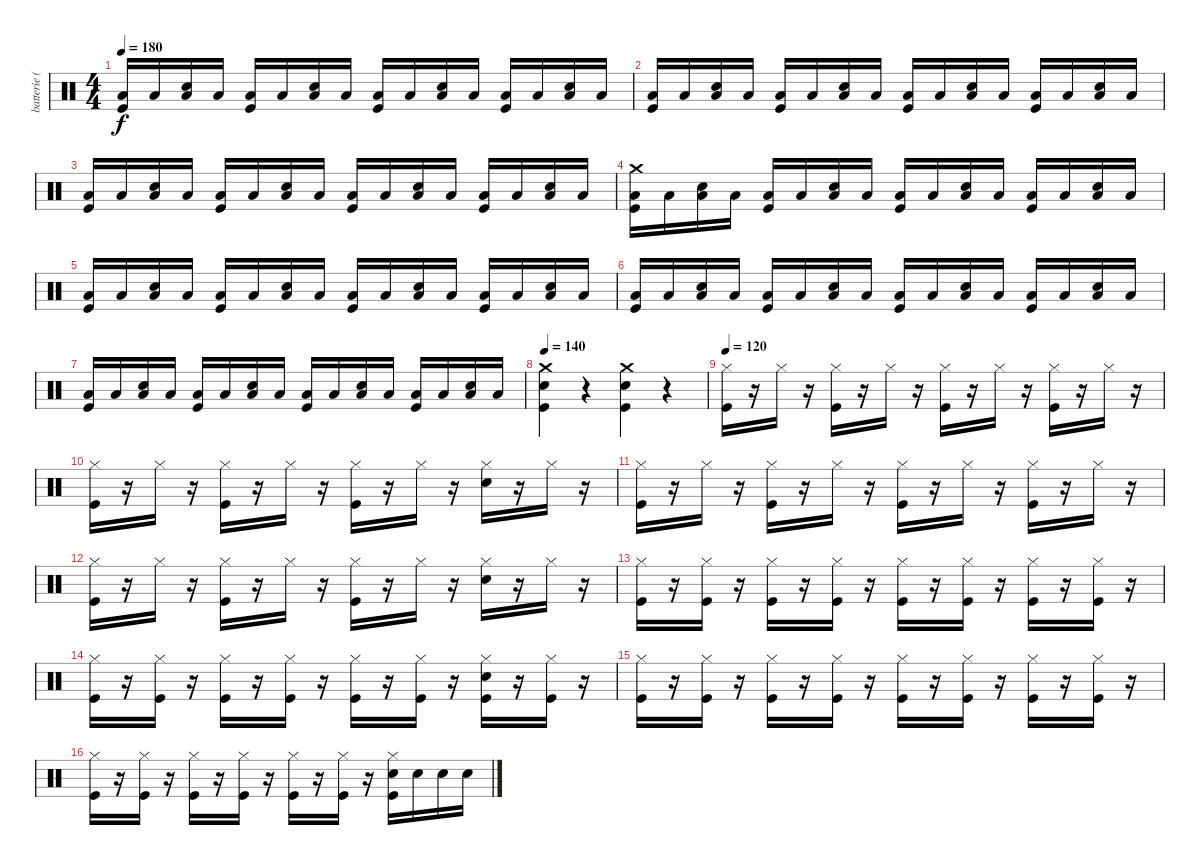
\track ("batterie ( Jeff Nelson ) " "batterie (") {instrument percussion}
\staff {score}
\articulation defaults
\ts (4 4)
\tempo 180
\clef neutral
\ks c
("Low Floor Tom (hit)" "Kick (hit)").16{dy f} "Low Floor Tom (hit)".16 ("Low Floor Tom (hit)" "Snare (hit) 2").16 "Low Floor Tom (hit)".16 ("Low Floor Tom (hit)" "Kick (hit)").16 "Low Floor Tom (hit)".16 ("Low Floor Tom (hit)" "Snare (hit) 2").16 "Low Floor Tom (hit)".16 ("Low Floor Tom (hit)" "Kick (hit)").16 "Low Floor Tom (hit)".16 ("Low Floor Tom (hit)" "Snare (hit) 2").16 "Low Floor Tom (hit)".16 ("Low Floor Tom (hit)" "Kick (hit)").16 "Low Floor Tom (hit)".16 ("Low Floor Tom (hit)" "Snare (hit) 2").16 "Low Floor Tom (hit)".16 |
("Low Floor Tom (hit)" "Kick (hit)").16 "Low Floor Tom (hit)".16 ("Low Floor Tom (hit)" "Snare (hit) 2").16 "Low Floor Tom (hit)".16 ("Low Floor Tom (hit)" "Kick (hit)").16 "Low Floor Tom (hit)".16 ("Low Floor Tom (hit)" "Snare (hit) 2").16 "Low Floor Tom (hit)".16 ("Low Floor Tom (hit)" "Kick (hit)").16 "Low Floor Tom (hit)".16 ("Low Floor Tom (hit)" "Snare (hit) 2").16 "Low Floor Tom (hit)".16 ("Low Floor Tom (hit)" "Kick (hit)").16 "Low Floor Tom (hit)".16 ("Low Floor Tom (hit)" "Snare (hit) 2").16 "Low Floor Tom (hit)".16 |
("Low Floor Tom (hit)" "Kick (hit)").16 "Low Floor Tom (hit)".16 ("Low Floor Tom (hit)" "Snare (hit) 2").16 "Low Floor Tom (hit)".16 ("Low Floor Tom (hit)" "Kick (hit)").16 "Low Floor Tom (hit)".16 ("Low Floor Tom (hit)" "Snare (hit) 2").16 "Low Floor Tom (hit)".16 ("Low Floor Tom (hit)" "Kick (hit)").16 "Low Floor Tom (hit)".16 ("Low Floor Tom (hit)" "Snare (hit) 2").16 "Low Floor Tom (hit)".16 ("Low Floor Tom (hit)" "Kick (hit)").16 "Low Floor Tom (hit)".16 ("Low Floor Tom (hit)" "Snare (hit) 2").16 "Low Floor Tom (hit)".16 |
("Crash medium (hit)" "Low Floor Tom (hit)" "Kick (hit)").16 "Low Floor Tom (hit)".16 ("Low Floor Tom (hit)" "Snare (hit) 2").16 "Low Floor Tom (hit)".16 ("Low Floor Tom (hit)" "Kick (hit)").16 "Low Floor Tom (hit)".16 ("Low Floor Tom (hit)" "Snare (hit) 2").16 "Low Floor Tom (hit)".16 ("Low Floor Tom (hit)" "Kick (hit)").16 "Low Floor Tom (hit)".16 ("Low Floor Tom (hit)" "Snare (hit) 2").16 "Low Floor Tom (hit)".16 ("Low Floor Tom (hit)" "Kick (hit)").16 "Low Floor Tom (hit)".16 ("Low Floor Tom (hit)" "Snare (hit) 2").16 "Low Floor Tom (hit)".16 |
("Low Floor Tom (hit)" "Kick (hit)").16 "Low Floor Tom (hit)".16 ("Low Floor Tom (hit)" "Snare (hit) 2").16 "Low Floor Tom (hit)".16 ("Low Floor Tom (hit)" "Kick (hit)").16 "Low Floor Tom (hit)".16 ("Low Floor Tom (hit)" "Snare (hit) 2").16 "Low Floor Tom (hit)".16 ("Low Floor Tom (hit)" "Kick (hit)").16 "Low Floor Tom (hit)".16 ("Low Floor Tom (hit)" "Snare (hit) 2").16 "Low Floor Tom (hit)".16 ("Low Floor Tom (hit)" "Kick (hit)").16 "Low Floor Tom (hit)".16 ("Low Floor Tom (hit)" "Snare (hit) 2").16 "Low Floor Tom (hit)".16 |
("Low Floor Tom (hit)" "Kick (hit)").16 "Low Floor Tom (hit)".16 ("Low Floor Tom (hit)" "Snare (hit) 2").16 "Low Floor Tom (hit)".16 ("Low Floor Tom (hit)" "Kick (hit)").16 "Low Floor Tom (hit)".16 ("Low Floor Tom (hit)" "Snare (hit) 2").16 "Low Floor Tom (hit)".16 ("Low Floor Tom (hit)" "Kick (hit)").16 "Low Floor Tom (hit)".16 ("Low Floor Tom (hit)" "Snare (hit) 2").16 "Low Floor Tom (hit)".16 ("Low Floor Tom (hit)" "Kick (hit)").16 "Low Floor Tom (hit)".16 ("Low Floor Tom (hit)" "Snare (hit) 2").16 "Low Floor Tom (hit)".16 |
("Low Floor Tom (hit)" "Kick (hit)").16 "Low Floor Tom (hit)".16 ("Low Floor Tom (hit)" "Snare (hit) 2").16 "Low Floor Tom (hit)".16 ("Low Floor Tom (hit)" "Kick (hit)").16 "Low Floor Tom (hit)".16 ("Low Floor Tom (hit)" "Snare (hit) 2").16 "Low Floor Tom (hit)".16 ("Low Floor Tom (hit)" "Kick (hit)").16 "Low Floor Tom (hit)".16 ("Low Floor Tom (hit)" "Snare (hit) 2").16 "Low Floor Tom (hit)".16 ("Low Floor Tom (hit)" "Kick (hit)").16 "Low Floor Tom (hit)".16 ("Low Floor Tom (hit)" "Snare (hit) 2").16 "Low Floor Tom (hit)".16 |
\tempo 140
("Crash medium (hit)" "Snare (hit) 2" "Kick (hit)").4 r.4 ("Crash medium (hit)" "Snare (hit) 2" "Kick (hit)").4 r.4 |
\tempo 120
("Hi-Hat (closed)" "Kick (hit)").16 r.16 "Hi-Hat (closed)".16 r.16 ("Hi-Hat (closed)" "Kick (hit)").16 r.16 "Hi-Hat (closed)".16 r.16 ("Hi-Hat (closed)" "Kick (hit)").16 r.16 "Hi-Hat (closed)".16 r.16 ("Hi-Hat (closed)" "Kick (hit)").16 r.16 "Hi-Hat (closed)".16 r.16 |
("Hi-Hat (closed)" "Kick (hit)").16 r.16 "Hi-Hat (closed)".16 r.16 ("Hi-Hat (closed)" "Kick (hit)").16 r.16 "Hi-Hat (closed)".16 r.16 ("Hi-Hat (closed)" "Kick (hit)").16 r.16 "Hi-Hat (closed)".16 r.16 ("Hi-Hat (closed)" "Snare (hit) 2").16 r.16 "Hi-Hat (closed)".16 r.16 |
("Hi-Hat (closed)" "Kick (hit)").16 r.16 "Hi-Hat (closed)".16 r.16 ("Hi-Hat (closed)" "Kick (hit)").16 r.16 "Hi-Hat (closed)".16 r.16 ("Hi-Hat (closed)" "Kick (hit)").16 r.16 "Hi-Hat (closed)".16 r.16 ("Hi-Hat (closed)" "Kick (hit)").16 r.16 "Hi-Hat (closed)".16 r.16 |
("Hi-Hat (closed)" "Kick (hit)").16 r.16 "Hi-Hat (closed)".16 r.16 ("Hi-Hat (closed)" "Kick (hit)").16 r.16 "Hi-Hat (closed)".16 r.16 ("Hi-Hat (closed)" "Kick (hit)").16 r.16 "Hi-Hat (closed)".16 r.16 ("Hi-Hat (closed)" "Snare (hit) 2").16 r.16 "Hi-Hat (closed)".16 r.16 |
("Hi-Hat (closed)" "Kick (hit)").16 r.16 ("Hi-Hat (closed)" "Kick (hit)").16 r.16 ("Hi-Hat (closed)" "Kick (hit)").16 r.16 ("Hi-Hat (closed)" "Kick (hit)").16 r.16 ("Hi-Hat (closed)" "Kick (hit)").16 r.16 ("Hi-Hat (closed)" "Kick (hit)").16 r.16 ("Hi-Hat (closed)" "Kick (hit)").16 r.16 ("Hi-Hat (closed)" "Kick (hit)").16 r.16 |
("Hi-Hat (closed)" "Kick (hit)").16 r.16 ("Hi-Hat (closed)" "Kick (hit)").16 r.16 ("Hi-Hat (closed)" "Kick (hit)").16 r.16 ("Hi-Hat (closed)" "Kick (hit)").16 r.16 ("Hi-Hat (closed)" "Kick (hit)").16 r.16 ("Hi-Hat (closed)" "Kick (hit)").16 r.16 ("Hi-Hat (closed)" "Snare (hit) 2" "Kick (hit)").16 r.16 ("Hi-Hat (closed)" "Kick (hit)").16 r.16 |
("Hi-Hat (closed)" "Kick (hit)").16 r.16 ("Hi-Hat (closed)" "Kick (hit)").16 r.16 ("Hi-Hat (closed)" "Kick (hit)").16 r.16 ("Hi-Hat (closed)" "Kick (hit)").16 r.16 ("Hi-Hat (closed)" "Kick (hit)").16 r.16 ("Hi-Hat (closed)" "Kick (hit)").16 r.16 ("Hi-Hat (closed)" "Kick (hit)").16 r.16 ("Hi-Hat (closed)" "Kick (hit)").16 r.16 |
("Hi-Hat (closed)" "Kick (hit)").16 r.16 ("Hi-Hat (closed)" "Kick (hit)").16 r.16 ("Hi-Hat (closed)" "Kick (hit)").16 r.16 ("Hi-Hat (closed)" "Kick (hit)").16 r.16 ("Hi-Hat (closed)" "Kick (hit)").16 r.16 ("Hi-Hat (closed)" "Kick (hit)").16 r.16 ("Hi-Hat (closed)" "Snare (hit) 2" "Kick (hit)").16 "Snare (hit) 2".16 "Snare (hit) 2".16 "Snare (hit) 2".16
